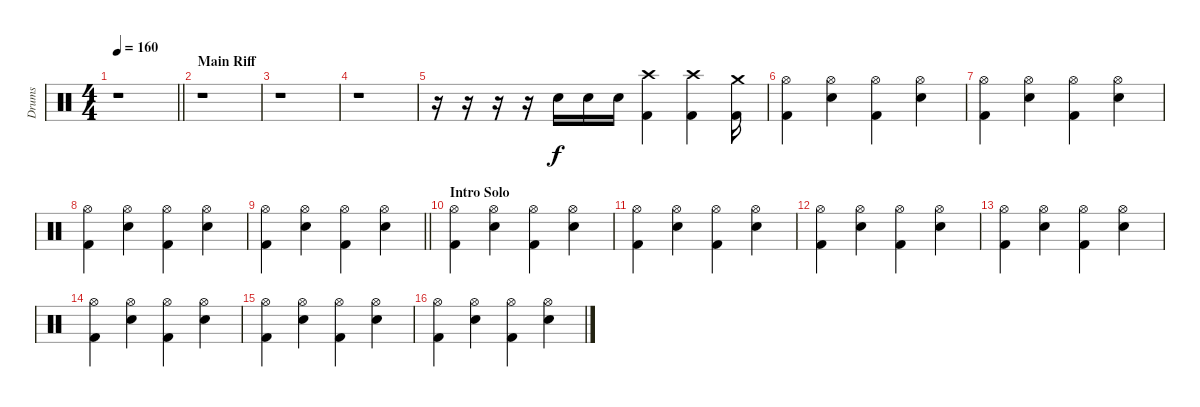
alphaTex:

\track ("Drums" "Drums") {instrument percussion}
\staff {score}
\articulation defaults
\ts (4 4)
\tempo 160
\clef neutral
\barLineRight lightlight
\ks c
r.1{dy f} |
\section ("" "Main Riff")
r.1 |
r.1 |
r.1 |
r.16 r.16 r.16 r.16 "Electric Snare (hit)".16 "Electric Snare (hit)".16 "Electric Snare (hit)".16 ("Crash high (hit)" "Kick (hit) 2").4 ("Crash high (hit)" "Kick (hit) 2").4 ("Crash medium (hit)" "Kick (hit) 2").16 |
("Hi-Hat (open)" "Kick (hit) 2").4 ("Hi-Hat (open)" "Electric Snare (hit)").4 ("Hi-Hat (open)" "Kick (hit) 2").4 ("Hi-Hat (open)" "Electric Snare (hit)").4 |
("Hi-Hat (open)" "Kick (hit) 2").4 ("Hi-Hat (open)" "Electric Snare (hit)").4 ("Hi-Hat (open)" "Kick (hit) 2").4 ("Hi-Hat (open)" "Electric Snare (hit)").4 |
("Hi-Hat (open)" "Kick (hit) 2").4 ("Hi-Hat (open)" "Electric Snare (hit)").4 ("Hi-Hat (open)" "Kick (hit) 2").4 ("Hi-Hat (open)" "Electric Snare (hit)").4 |
\barLineRight lightlight
("Hi-Hat (open)" "Kick (hit) 2").4 ("Hi-Hat (open)" "Electric Snare (hit)").4 ("Hi-Hat (open)" "Kick (hit) 2").4 ("Hi-Hat (open)" "Electric Snare (hit)").4 |
\section ("" "Intro Solo")
("Hi-Hat (open)" "Kick (hit) 2").4 ("Hi-Hat (open)" "Electric Snare (hit)").4 ("Hi-Hat (open)" "Kick (hit) 2").4 ("Hi-Hat (open)" "Electric Snare (hit)").4 |
("Hi-Hat (open)" "Kick (hit) 2").4 ("Hi-Hat (open)" "Electric Snare (hit)").4 ("Hi-Hat (open)" "Kick (hit) 2").4 ("Hi-Hat (open)" "Electric Snare (hit)").4 |
("Hi-Hat (open)" "Kick (hit) 2").4 ("Hi-Hat (open)" "Electric Snare (hit)").4 ("Hi-Hat (open)" "Kick (hit) 2").4 ("Hi-Hat (open)" "Electric Snare (hit)").4 |
("Hi-Hat (open)" "Kick (hit) 2").4 ("Hi-Hat (open)" "Electric Snare (hit)").4 ("Hi-Hat (open)" "Kick (hit) 2").4 ("Hi-Hat (open)" "Electric Snare (hit)").4 |
("Hi-Hat (open)" "Kick (hit) 2").4 ("Hi-Hat (open)" "Electric Snare (hit)").4 ("Hi-Hat (open)" "Kick (hit) 2").4 ("Hi-Hat (open)" "Electric Snare (hit)").4 |
("Hi-Hat (open)" "Kick (hit) 2").4 ("Hi-Hat (open)" "Electric Snare (hit)").4 ("Hi-Hat (open)" "Kick (hit) 2").4 ("Hi-Hat (open)" "Electric Snare (hit)").4 |
("Hi-Hat (open)" "Kick (hit) 2").4 ("Hi-Hat (open)" "Electric Snare (hit)").4 ("Hi-Hat (open)" "Kick (hit) 2").4 ("Hi-Hat (open)" "Electric Snare (hit)").4
